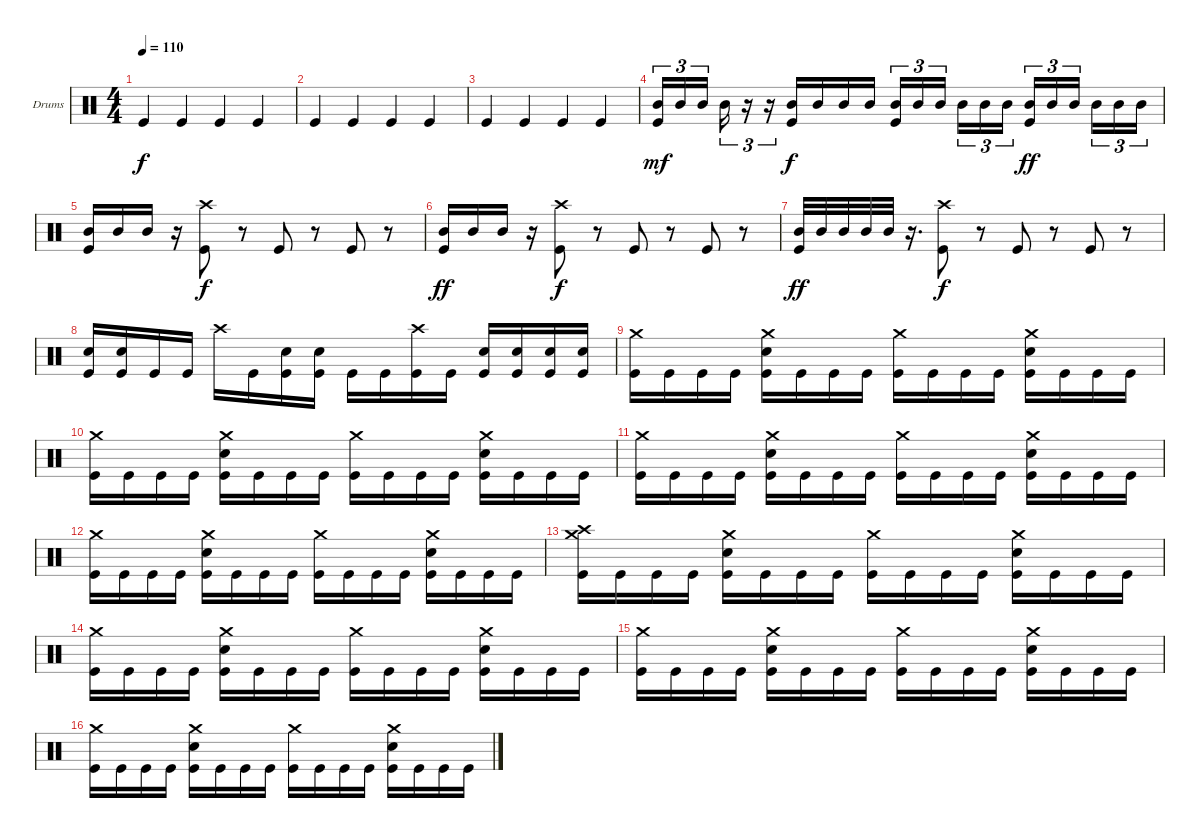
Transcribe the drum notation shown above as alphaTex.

\defaultSystemsLayout 4
\bracketExtendMode groupsimilarinstruments
\firstSystemTrackNameOrientation horizontal
\otherSystemsTrackNameOrientation horizontal
\track ("Drumkit" "Drums") {instrument percussion}
\staff {score}
\articulation defaults
\ts (4 4)
\tempo 110
\clef neutral
\ks c "Kick (hit)".4{dy f} "Kick (hit)".4 "Kick (hit)".4 "Kick (hit)".4
|
"Kick (hit)".4 "Kick (hit)".4 "Kick (hit)".4 "Kick (hit)".4 |
"Kick (hit)".4 "Kick (hit)".4 "Kick (hit)".4 "Kick (hit)".4 |
("Mid Tom (hit)" "Kick (hit)").16{tu (3 2) dy mf} "Mid Tom (hit)".16{tu (3 2)} "Mid Tom (hit)".16{tu (3 2)} "Mid Tom (hit)".16{tu (3 2)} r.16{tu (3 2)} r.16{tu (3 2)} ("Mid Tom (hit)" "Kick (hit)").16{dy f} "Mid Tom (hit)".16 "Mid Tom (hit)".16 "Mid Tom (hit)".16 ("Mid Tom (hit)" "Kick (hit)").16{tu (3 2)} "Mid Tom (hit)".16{tu (3 2)} "Mid Tom (hit)".16{tu (3 2)} "Mid Tom (hit)".16{tu (3 2)} "Mid Tom (hit)".16{tu (3 2)} "Mid Tom (hit)".16{tu (3 2)} ("Mid Tom (hit)" "Kick (hit)").16{tu (3 2) dy ff} "Mid Tom (hit)".16{tu (3 2)} "Mid Tom (hit)".16{tu (3 2)} "Mid Tom (hit)".16{tu (3 2)} "Mid Tom (hit)".16{tu (3 2)} "Mid Tom (hit)".16{tu (3 2)} |
("Mid Tom (hit)" "Kick (hit)").16 "Mid Tom (hit)".16 "Mid Tom (hit)".16 r.16 ("Crash high (hit)" "Kick (hit)").8{dy f} r.8 "Kick (hit)".8 r.8 "Kick (hit)".8 r.8 |
("Mid Tom (hit)" "Kick (hit)").16{dy ff} "Mid Tom (hit)".16 "Mid Tom (hit)".16 r.16 ("Crash high (hit)" "Kick (hit)").8{dy f} r.8 "Kick (hit)".8 r.8 "Kick (hit)".8 r.8 |
("Mid Tom (hit)" "Kick (hit)").32{dy ff} "Mid Tom (hit)".32 "Mid Tom (hit)".32 "Mid Tom (hit)".32 "Mid Tom (hit)".32 r.16{d} ("Crash high (hit)" "Kick (hit)").8{dy f} r.8 "Kick (hit)".8 r.8 "Kick (hit)".8 r.8 |
("Snare (hit) 2" "Kick (hit)").16 ("Snare (hit) 2" "Kick (hit)").16 "Kick (hit)".16 "Kick (hit)".16 "Crash high (hit)".16 "Kick (hit)".16 ("Snare (hit) 2" "Kick (hit)").16 ("Snare (hit) 2" "Kick (hit)").16 "Kick (hit)".16 "Kick (hit)".16 ("Crash high (hit)" "Kick (hit)").16 "Kick (hit)".16 ("Snare (hit) 2" "Kick (hit)").16 ("Snare (hit) 2" "Kick (hit)").16 ("Snare (hit) 2" "Kick (hit)").16 ("Snare (hit) 2" "Kick (hit)").16 |
("Crash medium (hit)" "Kick (hit)").16 "Kick (hit)".16 "Kick (hit)".16 "Kick (hit)".16 ("Crash medium (hit)" "Snare (hit) 2" "Kick (hit)").16 "Kick (hit)".16 "Kick (hit)".16 "Kick (hit)".16 ("Crash medium (hit)" "Kick (hit)").16 "Kick (hit)".16 "Kick (hit)".16 "Kick (hit)".16 ("Crash medium (hit)" "Snare (hit) 2" "Kick (hit)").16 "Kick (hit)".16 "Kick (hit)".16 "Kick (hit)".16 |
("Crash medium (hit)" "Kick (hit)").16 "Kick (hit)".16 "Kick (hit)".16 "Kick (hit)".16 ("Crash medium (hit)" "Snare (hit) 2" "Kick (hit)").16 "Kick (hit)".16 "Kick (hit)".16 "Kick (hit)".16 ("Crash medium (hit)" "Kick (hit)").16 "Kick (hit)".16 "Kick (hit)".16 "Kick (hit)".16 ("Crash medium (hit)" "Snare (hit) 2" "Kick (hit)").16 "Kick (hit)".16 "Kick (hit)".16 "Kick (hit)".16 |
("Crash medium (hit)" "Kick (hit)").16 "Kick (hit)".16 "Kick (hit)".16 "Kick (hit)".16 ("Crash medium (hit)" "Snare (hit) 2" "Kick (hit)").16 "Kick (hit)".16 "Kick (hit)".16 "Kick (hit)".16 ("Crash medium (hit)" "Kick (hit)").16 "Kick (hit)".16 "Kick (hit)".16 "Kick (hit)".16 ("Crash medium (hit)" "Snare (hit) 2" "Kick (hit)").16 "Kick (hit)".16 "Kick (hit)".16 "Kick (hit)".16 |
("Crash medium (hit)" "Kick (hit)").16 "Kick (hit)".16 "Kick (hit)".16 "Kick (hit)".16 ("Crash medium (hit)" "Snare (hit) 2" "Kick (hit)").16 "Kick (hit)".16 "Kick (hit)".16 "Kick (hit)".16 ("Crash medium (hit)" "Kick (hit)").16 "Kick (hit)".16 "Kick (hit)".16 "Kick (hit)".16 ("Crash medium (hit)" "Snare (hit) 2" "Kick (hit)").16 "Kick (hit)".16 "Kick (hit)".16 "Kick (hit)".16 |
("Crash high (hit)" "Crash medium (hit)" "Kick (hit)").16 "Kick (hit)".16 "Kick (hit)".16 "Kick (hit)".16 ("Crash medium (hit)" "Snare (hit) 2" "Kick (hit)").16 "Kick (hit)".16 "Kick (hit)".16 "Kick (hit)".16 ("Crash medium (hit)" "Kick (hit)").16 "Kick (hit)".16 "Kick (hit)".16 "Kick (hit)".16 ("Crash medium (hit)" "Snare (hit) 2" "Kick (hit)").16 "Kick (hit)".16 "Kick (hit)".16 "Kick (hit)".16 |
("Crash medium (hit)" "Kick (hit)").16 "Kick (hit)".16 "Kick (hit)".16 "Kick (hit)".16 ("Crash medium (hit)" "Snare (hit) 2" "Kick (hit)").16 "Kick (hit)".16 "Kick (hit)".16 "Kick (hit)".16 ("Crash medium (hit)" "Kick (hit)").16 "Kick (hit)".16 "Kick (hit)".16 "Kick (hit)".16 ("Crash medium (hit)" "Snare (hit) 2" "Kick (hit)").16 "Kick (hit)".16 "Kick (hit)".16 "Kick (hit)".16 |
("Crash medium (hit)" "Kick (hit)").16 "Kick (hit)".16 "Kick (hit)".16 "Kick (hit)".16 ("Crash medium (hit)" "Snare (hit) 2" "Kick (hit)").16 "Kick (hit)".16 "Kick (hit)".16 "Kick (hit)".16 ("Crash medium (hit)" "Kick (hit)").16 "Kick (hit)".16 "Kick (hit)".16 "Kick (hit)".16 ("Crash medium (hit)" "Snare (hit) 2" "Kick (hit)").16 "Kick (hit)".16 "Kick (hit)".16 "Kick (hit)".16 |
("Crash medium (hit)" "Kick (hit)").16 "Kick (hit)".16 "Kick (hit)".16 "Kick (hit)".16 ("Crash medium (hit)" "Snare (hit) 2" "Kick (hit)").16 "Kick (hit)".16 "Kick (hit)".16 "Kick (hit)".16 ("Crash medium (hit)" "Kick (hit)").16 "Kick (hit)".16 "Kick (hit)".16 "Kick (hit)".16 ("Crash medium (hit)" "Snare (hit) 2" "Kick (hit)").16 "Kick (hit)".16 "Kick (hit)".16 "Kick (hit)".16
